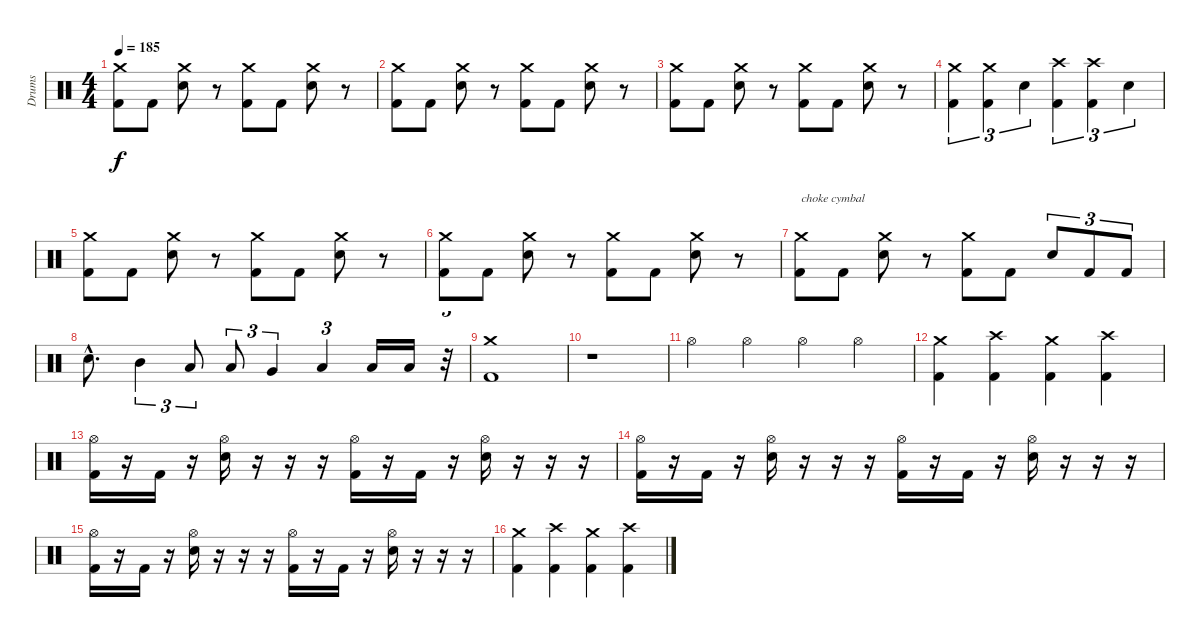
\track ("Drums" "Drums") {instrument percussion}
\staff {score}
\articulation defaults
\ts (4 4)
\tempo 185
\clef neutral
\ks c
("Crash medium (hit)" "Kick (hit) 2").8{dy f} "Kick (hit) 2".8 ("Crash medium (hit)" "Electric Snare (hit)").8 r.8 ("Crash medium (hit)" "Kick (hit) 2").8 "Kick (hit) 2".8 ("Crash medium (hit)" "Electric Snare (hit)").8 r.8 |
("Crash medium (hit)" "Kick (hit) 2").8 "Kick (hit) 2".8 ("Crash medium (hit)" "Electric Snare (hit)").8 r.8 ("Crash medium (hit)" "Kick (hit) 2").8 "Kick (hit) 2".8 ("Crash medium (hit)" "Electric Snare (hit)").8 r.8 |
("Crash medium (hit)" "Kick (hit) 2").8 "Kick (hit) 2".8 ("Crash medium (hit)" "Electric Snare (hit)").8 r.8 ("Crash medium (hit)" "Kick (hit) 2").8 "Kick (hit) 2".8 ("Crash medium (hit)" "Electric Snare (hit)").8 r.8 |
("Crash medium (hit)" "Kick (hit) 2").4{tu (3 2)} ("Crash medium (hit)" "Kick (hit) 2").4{tu (3 2)} "Electric Snare (hit)".4{tu (3 2)} ("Crash high (hit)" "Kick (hit) 2").4{tu (3 2)} ("Crash high (hit)" "Kick (hit) 2").4{tu (3 2)} "Electric Snare (hit)".4{tu (3 2)} |
("Crash medium (hit)" "Kick (hit) 2").8 "Kick (hit) 2".8 ("Crash medium (hit)" "Electric Snare (hit)").8 r.8 ("Crash medium (hit)" "Kick (hit) 2").8 "Kick (hit) 2".8 ("Crash medium (hit)" "Electric Snare (hit)").8 r.8 |
("Crash medium (hit)" "Kick (hit) 2").8 "Kick (hit) 2".8 ("Crash medium (hit)" "Electric Snare (hit)").8 r.8 ("Crash medium (hit)" "Kick (hit) 2").8 "Kick (hit) 2".8 ("Crash medium (hit)" "Electric Snare (hit)").8 r.8 |
("Crash medium (hit)" "Kick (hit) 2").8{txt "choke cymbal"} "Kick (hit) 2".8 ("Crash medium (hit)" "Electric Snare (hit)").8 r.8 ("Crash medium (hit)" "Kick (hit) 2").8 "Kick (hit) 2".8 "Electric Snare (hit)".8{tu (3 2)} "Kick (hit) 2".8{tu (3 2)} "Kick (hit) 2".8{tu (3 2)} |
"Electric Snare (hit)"{hac}.8{d} "Mid Tom (hit)".4{tu (3 2)} "Low Tom (hit)".8{tu (3 2)} "Low Tom (hit)".8{tu (3 2)} "Very Low Tom (hit)".4{tu (3 2)} "Low Floor Tom (hit)".4{tu (3 2)} "Low Floor Tom (hit)".16 "Low Floor Tom (hit)".16 r.32{tu (3 2)} |
("Crash medium (hit)" "Kick (hit) 2").1 |
r.1 |
"Hi-Hat (open)".4 "Hi-Hat (open)".4 "Hi-Hat (open)".4 "Hi-Hat (open)".4 |
("Crash medium (hit)" "Kick (hit) 2").4 ("Crash high (hit)" "Kick (hit) 2").4 ("Crash medium (hit)" "Kick (hit) 2").4 ("Crash high (hit)" "Kick (hit) 2").4 |
("Hi-Hat (open)" "Kick (hit) 2").16 r.16 "Kick (hit) 2".16 r.16 ("Hi-Hat (open)" "Electric Snare (hit)").16 r.16 r.16 r.16 ("Hi-Hat (open)" "Kick (hit) 2").16 r.16 "Kick (hit) 2".16 r.16 ("Hi-Hat (open)" "Electric Snare (hit)").16 r.16 r.16 r.16 |
("Hi-Hat (open)" "Kick (hit) 2").16 r.16 "Kick (hit) 2".16 r.16 ("Hi-Hat (open)" "Electric Snare (hit)").16 r.16 r.16 r.16 ("Hi-Hat (open)" "Kick (hit) 2").16 r.16 "Kick (hit) 2".16 r.16 ("Hi-Hat (open)" "Electric Snare (hit)").16 r.16 r.16 r.16 |
("Hi-Hat (open)" "Kick (hit) 2").16 r.16 "Kick (hit) 2".16 r.16 ("Hi-Hat (open)" "Electric Snare (hit)").16 r.16 r.16 r.16 ("Hi-Hat (open)" "Kick (hit) 2").16 r.16 "Kick (hit) 2".16 r.16 ("Hi-Hat (open)" "Electric Snare (hit)").16 r.16 r.16 r.16 |
("Crash medium (hit)" "Kick (hit) 2").4 ("Crash high (hit)" "Kick (hit) 2").4 ("Crash medium (hit)" "Kick (hit) 2").4 ("Crash high (hit)" "Kick (hit) 2").4
